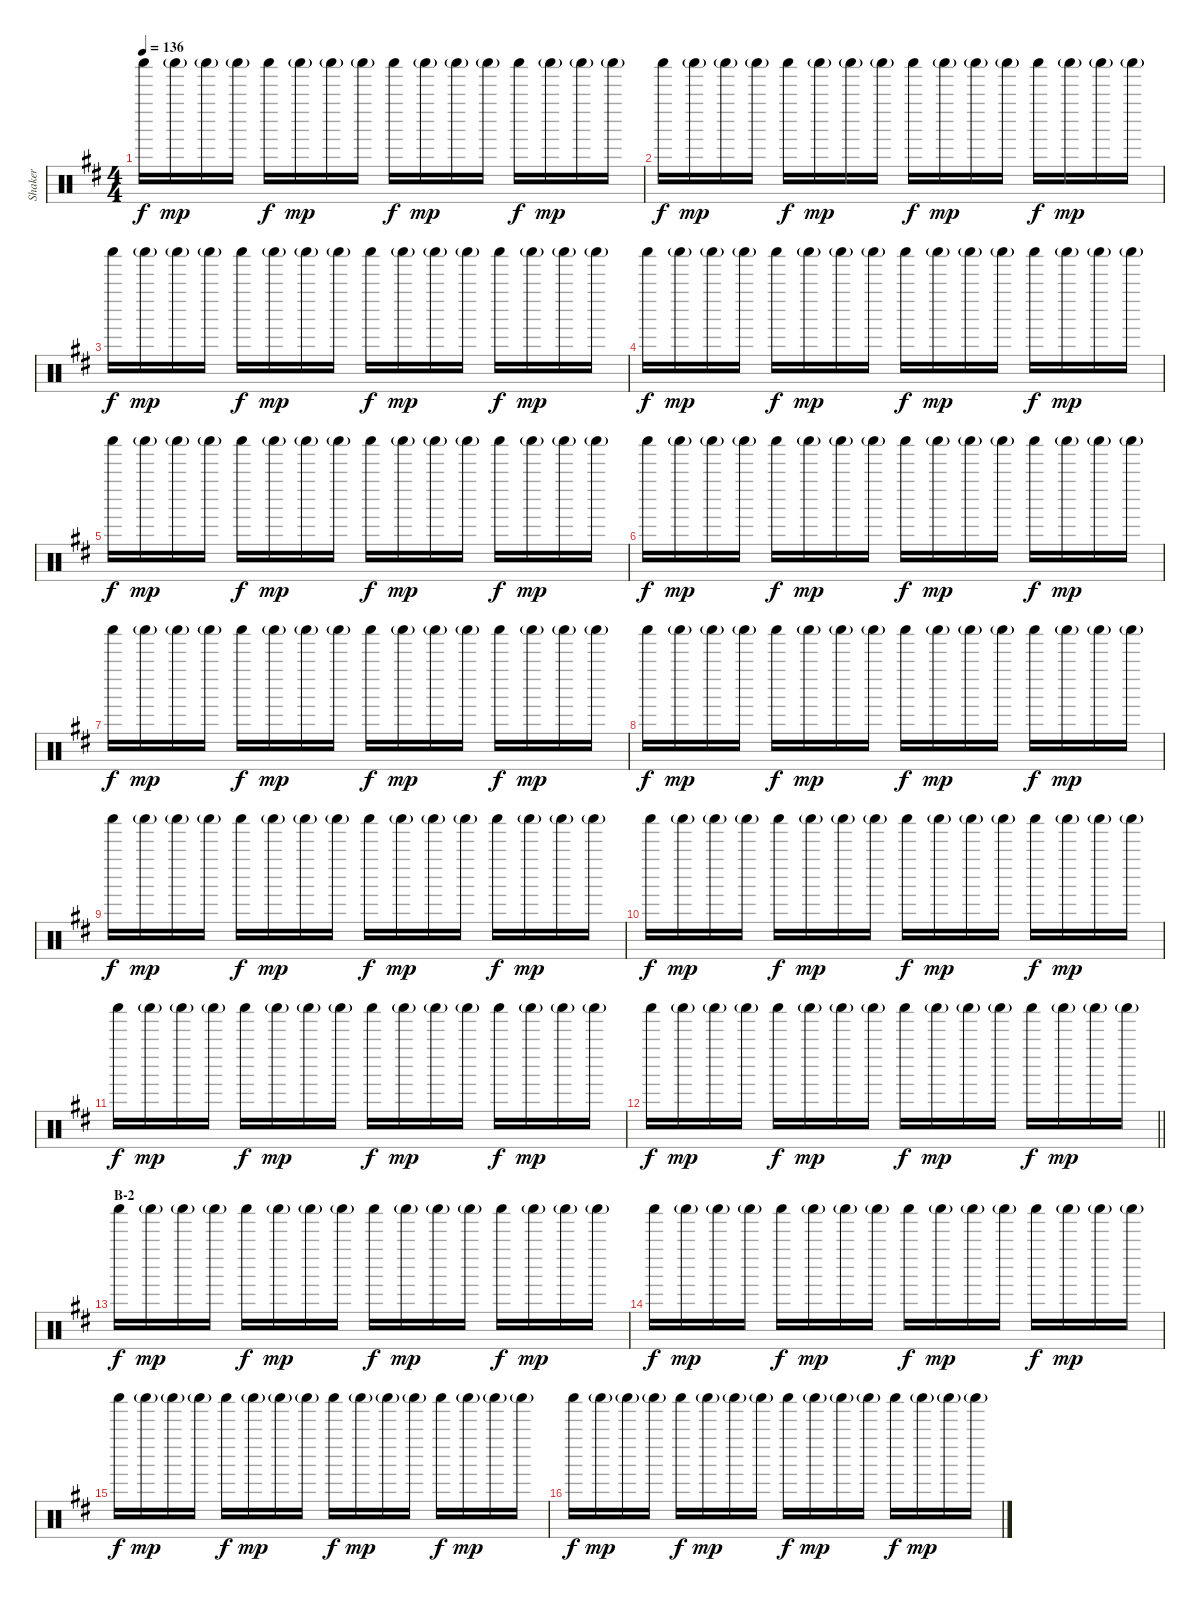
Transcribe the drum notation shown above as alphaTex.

\track ("Shaker" "Shaker") {instrument percussion}
\staff {score}
\articulation defaults
\ts (4 4)
\tempo 136
\clef neutral
\ks d "Shaker (hit)".16{dy f} "Shaker (hit)"{g}.16{dy mp} "Shaker (hit)"{g}.16 "Shaker (hit)"{g}.16 "Shaker (hit)".16{dy f} "Shaker (hit)"{g}.16{dy mp} "Shaker (hit)"{g}.16 "Shaker (hit)"{g}.16 "Shaker (hit)".16{dy f} "Shaker (hit)"{g}.16{dy mp} "Shaker (hit)"{g}.16 "Shaker (hit)"{g}.16 "Shaker (hit)".16{dy f} "Shaker (hit)"{g}.16{dy mp} "Shaker (hit)"{g}.16 "Shaker (hit)"{g}.16
|
"Shaker (hit)".16{dy f} "Shaker (hit)"{g}.16{dy mp} "Shaker (hit)"{g}.16 "Shaker (hit)"{g}.16 "Shaker (hit)".16{dy f} "Shaker (hit)"{g}.16{dy mp} "Shaker (hit)"{g}.16 "Shaker (hit)"{g}.16 "Shaker (hit)".16{dy f} "Shaker (hit)"{g}.16{dy mp} "Shaker (hit)"{g}.16 "Shaker (hit)"{g}.16 "Shaker (hit)".16{dy f} "Shaker (hit)"{g}.16{dy mp} "Shaker (hit)"{g}.16 "Shaker (hit)"{g}.16 |
"Shaker (hit)".16{dy f} "Shaker (hit)"{g}.16{dy mp} "Shaker (hit)"{g}.16 "Shaker (hit)"{g}.16 "Shaker (hit)".16{dy f} "Shaker (hit)"{g}.16{dy mp} "Shaker (hit)"{g}.16 "Shaker (hit)"{g}.16 "Shaker (hit)".16{dy f} "Shaker (hit)"{g}.16{dy mp} "Shaker (hit)"{g}.16 "Shaker (hit)"{g}.16 "Shaker (hit)".16{dy f} "Shaker (hit)"{g}.16{dy mp} "Shaker (hit)"{g}.16 "Shaker (hit)"{g}.16 |
"Shaker (hit)".16{dy f} "Shaker (hit)"{g}.16{dy mp} "Shaker (hit)"{g}.16 "Shaker (hit)"{g}.16 "Shaker (hit)".16{dy f} "Shaker (hit)"{g}.16{dy mp} "Shaker (hit)"{g}.16 "Shaker (hit)"{g}.16 "Shaker (hit)".16{dy f} "Shaker (hit)"{g}.16{dy mp} "Shaker (hit)"{g}.16 "Shaker (hit)"{g}.16 "Shaker (hit)".16{dy f} "Shaker (hit)"{g}.16{dy mp} "Shaker (hit)"{g}.16 "Shaker (hit)"{g}.16 |
"Shaker (hit)".16{dy f} "Shaker (hit)"{g}.16{dy mp} "Shaker (hit)"{g}.16 "Shaker (hit)"{g}.16 "Shaker (hit)".16{dy f} "Shaker (hit)"{g}.16{dy mp} "Shaker (hit)"{g}.16 "Shaker (hit)"{g}.16 "Shaker (hit)".16{dy f} "Shaker (hit)"{g}.16{dy mp} "Shaker (hit)"{g}.16 "Shaker (hit)"{g}.16 "Shaker (hit)".16{dy f} "Shaker (hit)"{g}.16{dy mp} "Shaker (hit)"{g}.16 "Shaker (hit)"{g}.16 |
"Shaker (hit)".16{dy f} "Shaker (hit)"{g}.16{dy mp} "Shaker (hit)"{g}.16 "Shaker (hit)"{g}.16 "Shaker (hit)".16{dy f} "Shaker (hit)"{g}.16{dy mp} "Shaker (hit)"{g}.16 "Shaker (hit)"{g}.16 "Shaker (hit)".16{dy f} "Shaker (hit)"{g}.16{dy mp} "Shaker (hit)"{g}.16 "Shaker (hit)"{g}.16 "Shaker (hit)".16{dy f} "Shaker (hit)"{g}.16{dy mp} "Shaker (hit)"{g}.16 "Shaker (hit)"{g}.16 |
"Shaker (hit)".16{dy f} "Shaker (hit)"{g}.16{dy mp} "Shaker (hit)"{g}.16 "Shaker (hit)"{g}.16 "Shaker (hit)".16{dy f} "Shaker (hit)"{g}.16{dy mp} "Shaker (hit)"{g}.16 "Shaker (hit)"{g}.16 "Shaker (hit)".16{dy f} "Shaker (hit)"{g}.16{dy mp} "Shaker (hit)"{g}.16 "Shaker (hit)"{g}.16 "Shaker (hit)".16{dy f} "Shaker (hit)"{g}.16{dy mp} "Shaker (hit)"{g}.16 "Shaker (hit)"{g}.16 |
"Shaker (hit)".16{dy f} "Shaker (hit)"{g}.16{dy mp} "Shaker (hit)"{g}.16 "Shaker (hit)"{g}.16 "Shaker (hit)".16{dy f} "Shaker (hit)"{g}.16{dy mp} "Shaker (hit)"{g}.16 "Shaker (hit)"{g}.16 "Shaker (hit)".16{dy f} "Shaker (hit)"{g}.16{dy mp} "Shaker (hit)"{g}.16 "Shaker (hit)"{g}.16 "Shaker (hit)".16{dy f} "Shaker (hit)"{g}.16{dy mp} "Shaker (hit)"{g}.16 "Shaker (hit)"{g}.16 |
"Shaker (hit)".16{dy f} "Shaker (hit)"{g}.16{dy mp} "Shaker (hit)"{g}.16 "Shaker (hit)"{g}.16 "Shaker (hit)".16{dy f} "Shaker (hit)"{g}.16{dy mp} "Shaker (hit)"{g}.16 "Shaker (hit)"{g}.16 "Shaker (hit)".16{dy f} "Shaker (hit)"{g}.16{dy mp} "Shaker (hit)"{g}.16 "Shaker (hit)"{g}.16 "Shaker (hit)".16{dy f} "Shaker (hit)"{g}.16{dy mp} "Shaker (hit)"{g}.16 "Shaker (hit)"{g}.16 |
"Shaker (hit)".16{dy f} "Shaker (hit)"{g}.16{dy mp} "Shaker (hit)"{g}.16 "Shaker (hit)"{g}.16 "Shaker (hit)".16{dy f} "Shaker (hit)"{g}.16{dy mp} "Shaker (hit)"{g}.16 "Shaker (hit)"{g}.16 "Shaker (hit)".16{dy f} "Shaker (hit)"{g}.16{dy mp} "Shaker (hit)"{g}.16 "Shaker (hit)"{g}.16 "Shaker (hit)".16{dy f} "Shaker (hit)"{g}.16{dy mp} "Shaker (hit)"{g}.16 "Shaker (hit)"{g}.16 |
"Shaker (hit)".16{dy f} "Shaker (hit)"{g}.16{dy mp} "Shaker (hit)"{g}.16 "Shaker (hit)"{g}.16 "Shaker (hit)".16{dy f} "Shaker (hit)"{g}.16{dy mp} "Shaker (hit)"{g}.16 "Shaker (hit)"{g}.16 "Shaker (hit)".16{dy f} "Shaker (hit)"{g}.16{dy mp} "Shaker (hit)"{g}.16 "Shaker (hit)"{g}.16 "Shaker (hit)".16{dy f} "Shaker (hit)"{g}.16{dy mp} "Shaker (hit)"{g}.16 "Shaker (hit)"{g}.16 |
\barLineRight lightlight "Shaker (hit)".16{dy f} "Shaker (hit)"{g}.16{dy mp} "Shaker (hit)"{g}.16 "Shaker (hit)"{g}.16 "Shaker (hit)".16{dy f} "Shaker (hit)"{g}.16{dy mp} "Shaker (hit)"{g}.16 "Shaker (hit)"{g}.16 "Shaker (hit)".16{dy f} "Shaker (hit)"{g}.16{dy mp} "Shaker (hit)"{g}.16 "Shaker (hit)"{g}.16 "Shaker (hit)".16{dy f} "Shaker (hit)"{g}.16{dy mp} "Shaker (hit)"{g}.16 "Shaker (hit)"{g}.16
|
\section ("" "B-2")
"Shaker (hit)".16{dy f} "Shaker (hit)"{g}.16{dy mp} "Shaker (hit)"{g}.16 "Shaker (hit)"{g}.16 "Shaker (hit)".16{dy f} "Shaker (hit)"{g}.16{dy mp} "Shaker (hit)"{g}.16 "Shaker (hit)"{g}.16 "Shaker (hit)".16{dy f} "Shaker (hit)"{g}.16{dy mp} "Shaker (hit)"{g}.16 "Shaker (hit)"{g}.16 "Shaker (hit)".16{dy f} "Shaker (hit)"{g}.16{dy mp} "Shaker (hit)"{g}.16 "Shaker (hit)"{g}.16 |
"Shaker (hit)".16{dy f} "Shaker (hit)"{g}.16{dy mp} "Shaker (hit)"{g}.16 "Shaker (hit)"{g}.16 "Shaker (hit)".16{dy f} "Shaker (hit)"{g}.16{dy mp} "Shaker (hit)"{g}.16 "Shaker (hit)"{g}.16 "Shaker (hit)".16{dy f} "Shaker (hit)"{g}.16{dy mp} "Shaker (hit)"{g}.16 "Shaker (hit)"{g}.16 "Shaker (hit)".16{dy f} "Shaker (hit)"{g}.16{dy mp} "Shaker (hit)"{g}.16 "Shaker (hit)"{g}.16 |
"Shaker (hit)".16{dy f} "Shaker (hit)"{g}.16{dy mp} "Shaker (hit)"{g}.16 "Shaker (hit)"{g}.16 "Shaker (hit)".16{dy f} "Shaker (hit)"{g}.16{dy mp} "Shaker (hit)"{g}.16 "Shaker (hit)"{g}.16 "Shaker (hit)".16{dy f} "Shaker (hit)"{g}.16{dy mp} "Shaker (hit)"{g}.16 "Shaker (hit)"{g}.16 "Shaker (hit)".16{dy f} "Shaker (hit)"{g}.16{dy mp} "Shaker (hit)"{g}.16 "Shaker (hit)"{g}.16 |
"Shaker (hit)".16{dy f} "Shaker (hit)"{g}.16{dy mp} "Shaker (hit)"{g}.16 "Shaker (hit)"{g}.16 "Shaker (hit)".16{dy f} "Shaker (hit)"{g}.16{dy mp} "Shaker (hit)"{g}.16 "Shaker (hit)"{g}.16 "Shaker (hit)".16{dy f} "Shaker (hit)"{g}.16{dy mp} "Shaker (hit)"{g}.16 "Shaker (hit)"{g}.16 "Shaker (hit)".16{dy f} "Shaker (hit)"{g}.16{dy mp} "Shaker (hit)"{g}.16 "Shaker (hit)"{g}.16
